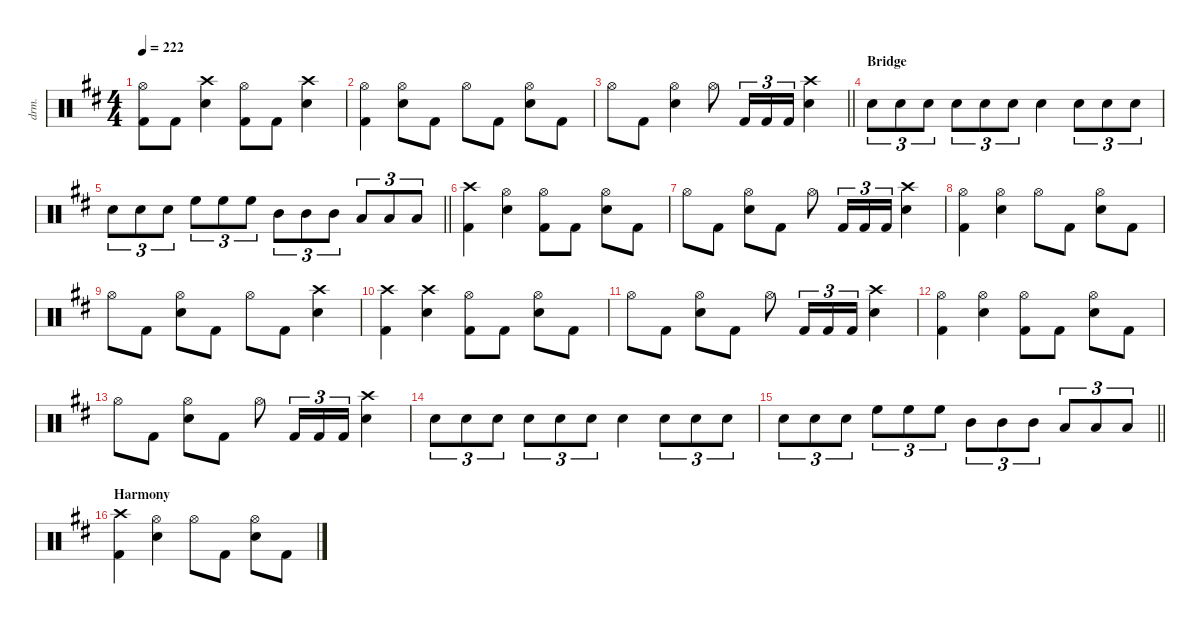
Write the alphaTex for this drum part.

\defaultSystemsLayout 4
\hideDynamics
\bracketExtendMode nobrackets
\otherSystemsTrackNameOrientation horizontal
\track ("Lars Ulrich" "drm.") {defaultSystemsLayout 4 instrument percussion}
\staff {score}
\articulation defaults
\ts (4 4)
\tempo 222
\clef neutral
\ks bminor
("Hi-Hat (open)"{acc forcenatural} "Kick (hit) 2"{acc forcenatural}).8{dy f} "Kick (hit) 2"{acc forcenatural}.8 ("Crash high (hit)"{acc forcenatural} "Snare (hit) 2"{acc forcenatural}).4 ("Hi-Hat (open)"{acc forcenatural} "Kick (hit) 2"{acc forcenatural}).8 "Kick (hit) 2"{acc forcenatural}.8 ("Crash high (hit)"{acc forcenatural} "Snare (hit) 2"{acc forcenatural}).4 |
("Hi-Hat (open)"{acc forcenatural} "Kick (hit) 2"{acc forcenatural}).4 ("Hi-Hat (open)"{acc forcenatural} "Snare (hit) 2"{acc forcenatural}).8 "Kick (hit) 2"{acc forcenatural}.8 "Hi-Hat (open)"{acc forcenatural}.8 "Kick (hit) 2"{acc forcenatural}.8 ("Hi-Hat (open)"{acc forcenatural} "Snare (hit) 2"{acc forcenatural}).8 "Kick (hit) 2"{acc forcenatural}.8 |
\barLineRight lightlight "Hi-Hat (open)"{acc forcenatural}.8 "Kick (hit) 2"{acc forcenatural}.8
("Hi-Hat (open)"{acc forcenatural} "Snare (hit) 2"{acc forcenatural}).4 "Hi-Hat (open)"{acc forcenatural}.8 "Kick (hit) 2"{acc forcenatural}.16{tu (3 2)} "Kick (hit) 2"{acc forcenatural}.16{tu (3 2)} "Kick (hit) 2"{acc forcenatural}.16{tu (3 2)} ("Crash high (hit)"{acc forcenatural} "Snare (hit) 2"{acc forcenatural}).4 |
\section ("" "Bridge")
"Snare (hit) 2"{acc forcenatural}.8{tu (3 2)} "Snare (hit) 2"{acc forcenatural}.8{tu (3 2)} "Snare (hit) 2"{acc forcenatural}.8{tu (3 2)} "Snare (hit) 2"{acc forcenatural}.8{tu (3 2)} "Snare (hit) 2"{acc forcenatural}.8{tu (3 2)} "Snare (hit) 2"{acc forcenatural}.8{tu (3 2)} "Snare (hit) 2"{acc forcenatural}.4 "Snare (hit) 2"{acc forcenatural}.8{tu (3 2)} "Snare (hit) 2"{acc forcenatural}.8{tu (3 2)} "Snare (hit) 2"{acc forcenatural}.8{tu (3 2)} |
\barLineRight lightlight "Snare (hit) 2"{acc forcenatural}.8{tu (3 2)} "Snare (hit) 2"{acc forcenatural}.8{tu (3 2)} "Snare (hit) 2"{acc forcenatural}.8{tu (3 2)} "High Floor Tom (hit)"{acc forcenatural}.8{tu (3 2) dy fff} "High Floor Tom (hit)"{acc forcenatural}.8{tu (3 2)} "High Floor Tom (hit)"{acc forcenatural}.8{tu (3 2)} "Mid Tom (hit)"{acc forcenatural}.8{tu (3 2)} "Mid Tom (hit)"{acc forcenatural}.8{tu (3 2)} "Mid Tom (hit)"{acc forcenatural}.8{tu (3 2)} "Low Tom (hit)"{acc forcenatural}.8{tu (3 2)} "Low Tom (hit)"{acc forcenatural}.8{tu (3 2)} "Low Tom (hit)"{acc forcenatural}.8{tu (3 2)}
|
("Crash high (hit)"{acc forcenatural} "Kick (hit) 2"{acc forcenatural}).4{dy f} ("Hi-Hat (open)"{acc forcenatural} "Snare (hit) 2"{acc forcenatural}).4 ("Hi-Hat (open)"{acc forcenatural} "Kick (hit) 2"{acc forcenatural}).8 "Kick (hit) 2"{acc forcenatural}.8 ("Hi-Hat (open)"{acc forcenatural} "Snare (hit) 2"{acc forcenatural}).8 "Kick (hit) 2"{acc forcenatural}.8 |
"Hi-Hat (open)"{acc forcenatural}.8 "Kick (hit) 2"{acc forcenatural}.8 ("Hi-Hat (open)"{acc forcenatural} "Snare (hit) 2"{acc forcenatural}).8 "Kick (hit) 2"{acc forcenatural}.8 "Hi-Hat (open)"{acc forcenatural}.8 "Kick (hit) 2"{acc forcenatural}.16{tu (3 2)} "Kick (hit) 2"{acc forcenatural}.16{tu (3 2)} "Kick (hit) 2"{acc forcenatural}.16{tu (3 2)} ("Crash high (hit)"{acc forcenatural} "Snare (hit) 2"{acc forcenatural}).4 |
("Hi-Hat (open)"{acc forcenatural} "Kick (hit) 2"{acc forcenatural}).4 ("Hi-Hat (open)"{acc forcenatural} "Snare (hit) 2"{acc forcenatural}).4 "Hi-Hat (open)"{acc forcenatural}.8 "Kick (hit) 2"{acc forcenatural}.8 ("Hi-Hat (open)"{acc forcenatural} "Snare (hit) 2"{acc forcenatural}).8 "Kick (hit) 2"{acc forcenatural}.8 |
"Hi-Hat (open)"{acc forcenatural}.8 "Kick (hit) 2"{acc forcenatural}.8 ("Hi-Hat (open)"{acc forcenatural} "Snare (hit) 2"{acc forcenatural}).8 "Kick (hit) 2"{acc forcenatural}.8 "Hi-Hat (open)"{acc forcenatural}.8 "Kick (hit) 2"{acc forcenatural}.8 ("Crash high (hit)"{acc forcenatural} "Snare (hit) 2"{acc forcenatural}).4 |
("Crash high (hit)"{acc forcenatural} "Kick (hit) 2"{acc forcenatural}).4 ("Crash high (hit)"{acc forcenatural} "Snare (hit) 2"{acc forcenatural}).4 ("Hi-Hat (open)"{acc forcenatural} "Kick (hit) 2"{acc forcenatural}).8 "Kick (hit) 2"{acc forcenatural}.8 ("Hi-Hat (open)"{acc forcenatural} "Snare (hit) 2"{acc forcenatural}).8 "Kick (hit) 2"{acc forcenatural}.8 |
"Hi-Hat (open)"{acc forcenatural}.8 "Kick (hit) 2"{acc forcenatural}.8 ("Hi-Hat (open)"{acc forcenatural} "Snare (hit) 2"{acc forcenatural}).8 "Kick (hit) 2"{acc forcenatural}.8 "Hi-Hat (open)"{acc forcenatural}.8 "Kick (hit) 2"{acc forcenatural}.16{tu (3 2)} "Kick (hit) 2"{acc forcenatural}.16{tu (3 2)} "Kick (hit) 2"{acc forcenatural}.16{tu (3 2)} ("Crash high (hit)"{acc forcenatural} "Snare (hit) 2"{acc forcenatural}).4 |
("Hi-Hat (open)"{acc forcenatural} "Kick (hit) 2"{acc forcenatural}).4 ("Hi-Hat (open)"{acc forcenatural} "Snare (hit) 2"{acc forcenatural}).4 ("Hi-Hat (open)"{acc forcenatural} "Kick (hit) 2"{acc forcenatural}).8 "Kick (hit) 2"{acc forcenatural}.8 ("Hi-Hat (open)"{acc forcenatural} "Snare (hit) 2"{acc forcenatural}).8 "Kick (hit) 2"{acc forcenatural}.8 |
"Hi-Hat (open)"{acc forcenatural}.8 "Kick (hit) 2"{acc forcenatural}.8 ("Hi-Hat (open)"{acc forcenatural} "Snare (hit) 2"{acc forcenatural}).8 "Kick (hit) 2"{acc forcenatural}.8 "Hi-Hat (open)"{acc forcenatural}.8 "Kick (hit) 2"{acc forcenatural}.16{tu (3 2)} "Kick (hit) 2"{acc forcenatural}.16{tu (3 2)} "Kick (hit) 2"{acc forcenatural}.16{tu (3 2)} ("Crash high (hit)"{acc forcenatural} "Snare (hit) 2"{acc forcenatural}).4 |
"Snare (hit) 2"{acc forcenatural}.8{tu (3 2)} "Snare (hit) 2"{acc forcenatural}.8{tu (3 2)} "Snare (hit) 2"{acc forcenatural}.8{tu (3 2)} "Snare (hit) 2"{acc forcenatural}.8{tu (3 2)} "Snare (hit) 2"{acc forcenatural}.8{tu (3 2)} "Snare (hit) 2"{acc forcenatural}.8{tu (3 2)} "Snare (hit) 2"{acc forcenatural}.4 "Snare (hit) 2"{acc forcenatural}.8{tu (3 2)} "Snare (hit) 2"{acc forcenatural}.8{tu (3 2)} "Snare (hit) 2"{acc forcenatural}.8{tu (3 2)} |
\barLineRight lightlight "Snare (hit) 2"{acc forcenatural}.8{tu (3 2)} "Snare (hit) 2"{acc forcenatural}.8{tu (3 2)} "Snare (hit) 2"{acc forcenatural}.8{tu (3 2)} "High Floor Tom (hit)"{acc forcenatural}.8{tu (3 2) dy fff} "High Floor Tom (hit)"{acc forcenatural}.8{tu (3 2)} "High Floor Tom (hit)"{acc forcenatural}.8{tu (3 2)} "Mid Tom (hit)"{acc forcenatural}.8{tu (3 2)} "Mid Tom (hit)"{acc forcenatural}.8{tu (3 2)} "Mid Tom (hit)"{acc forcenatural}.8{tu (3 2)} "Low Tom (hit)"{acc forcenatural}.8{tu (3 2)} "Low Tom (hit)"{acc forcenatural}.8{tu (3 2)} "Low Tom (hit)"{acc forcenatural}.8{tu (3 2)}
|
\section ("" "Harmony")
("Crash high (hit)"{acc forcenatural} "Kick (hit) 2"{acc forcenatural}).4{dy f} ("Hi-Hat (open)"{acc forcenatural} "Snare (hit) 2"{acc forcenatural}).4 "Hi-Hat (open)"{acc forcenatural}.8 "Kick (hit) 2"{acc forcenatural}.8 ("Hi-Hat (open)"{acc forcenatural} "Snare (hit) 2"{acc forcenatural}).8 "Kick (hit) 2"{acc forcenatural}.8
